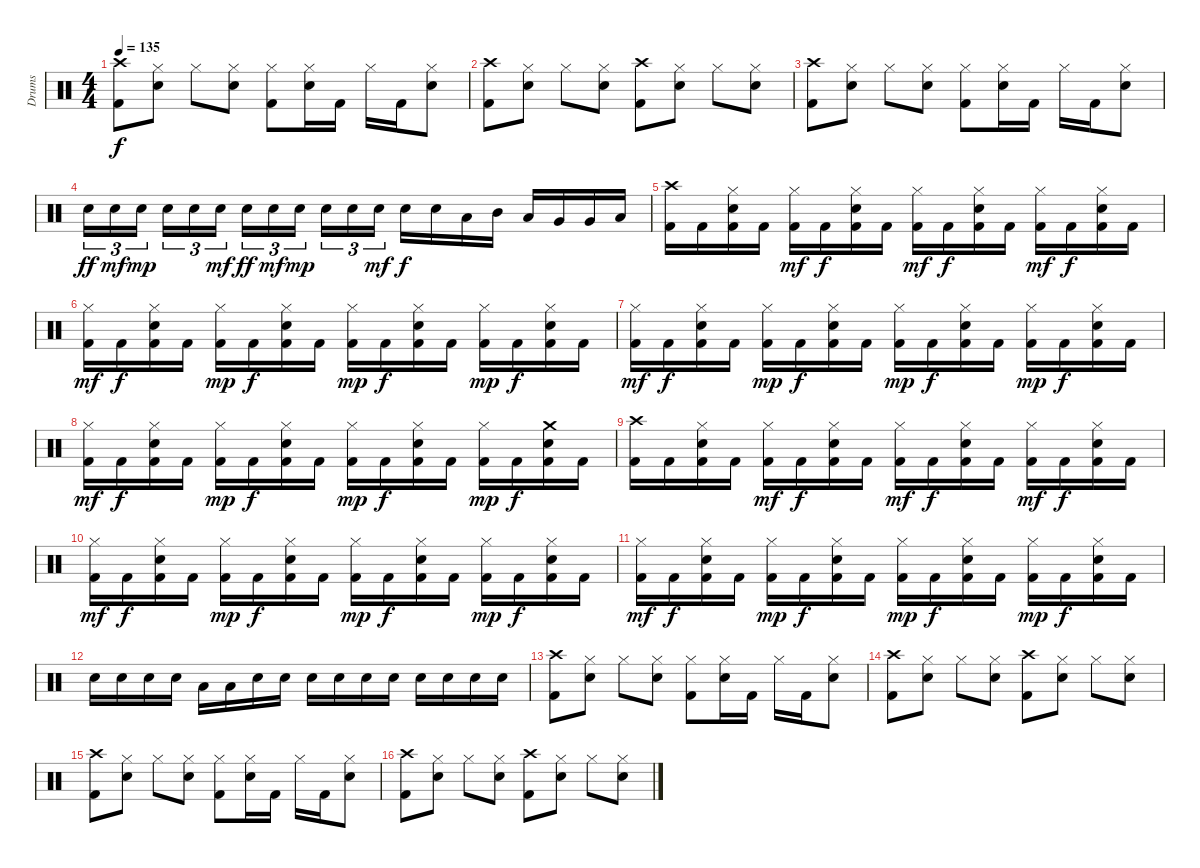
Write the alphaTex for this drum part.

\track ("Drums" "Drums") {instrument percussion}
\staff {score}
\articulation defaults
\ts (4 4)
\tempo 135
\clef neutral
\ks c
("Crash high (hit)" "Kick (hit) 2").8{dy f} ("Hi-Hat (closed)" "Snare (hit) 2").8 "Hi-Hat (closed)".8 ("Hi-Hat (closed)" "Snare (hit) 2").8 ("Hi-Hat (closed)" "Kick (hit) 2").8 ("Hi-Hat (closed)" "Snare (hit) 2").16 "Kick (hit) 2".16 "Hi-Hat (closed)".16 "Kick (hit) 2".16 ("Hi-Hat (closed)" "Snare (hit) 2").8 |
("Crash high (hit)" "Kick (hit) 2").8 ("Hi-Hat (closed)" "Snare (hit) 2").8 "Hi-Hat (closed)".8 ("Hi-Hat (closed)" "Snare (hit) 2").8 ("Crash high (hit)" "Kick (hit) 2").8 ("Hi-Hat (closed)" "Snare (hit) 2").8 "Hi-Hat (closed)".8 ("Hi-Hat (closed)" "Snare (hit) 2").8 |
("Crash high (hit)" "Kick (hit) 2").8 ("Hi-Hat (closed)" "Snare (hit) 2").8 "Hi-Hat (closed)".8 ("Hi-Hat (closed)" "Snare (hit) 2").8 ("Hi-Hat (closed)" "Kick (hit) 2").8 ("Hi-Hat (closed)" "Snare (hit) 2").16 "Kick (hit) 2".16 "Hi-Hat (closed)".16 "Kick (hit) 2".16 ("Hi-Hat (closed)" "Snare (hit) 2").8 |
"Snare (hit) 2".16{tu (3 2) dy ff} "Snare (hit) 2".16{tu (3 2) dy mf} "Snare (hit) 2".16{tu (3 2) dy mp} "Snare (hit) 2".16{tu (3 2)} "Snare (hit) 2".16{tu (3 2)} "Snare (hit) 2".16{tu (3 2) dy mf} "Snare (hit) 2".16{tu (3 2) dy ff} "Snare (hit) 2".16{tu (3 2) dy mf} "Snare (hit) 2".16{tu (3 2) dy mp} "Snare (hit) 2".16{tu (3 2)} "Snare (hit) 2".16{tu (3 2)} "Snare (hit) 2".16{tu (3 2) dy mf} "Snare (hit) 2".16{dy f} "Snare (hit) 2".16 "Low Tom (hit)".16 "Mid Tom (hit)".16 "Low Tom (hit)".16 "Very Low Tom (hit)".16 "Very Low Tom (hit)".16 "Low Floor Tom (hit)".16 |
("Crash high (hit)" "Kick (hit) 2").16 "Kick (hit) 2".16 ("Hi-Hat (closed)" "Snare (hit) 2" "Kick (hit) 2").16 "Kick (hit) 2".16 ("Hi-Hat (closed)" "Kick (hit) 2").16{dy mf} "Kick (hit) 2".16{dy f} ("Hi-Hat (closed)" "Snare (hit) 2" "Kick (hit) 2").16 "Kick (hit) 2".16 ("Hi-Hat (closed)" "Kick (hit) 2").16{dy mf} "Kick (hit) 2".16{dy f} ("Hi-Hat (closed)" "Snare (hit) 2" "Kick (hit) 2").16 "Kick (hit) 2".16 ("Hi-Hat (closed)" "Kick (hit) 2").16{dy mf} "Kick (hit) 2".16{dy f} ("Hi-Hat (closed)" "Snare (hit) 2" "Kick (hit) 2").16 "Kick (hit) 2".16 |
("Hi-Hat (closed)" "Kick (hit) 2").16{dy mf} "Kick (hit) 2".16{dy f} ("Hi-Hat (closed)" "Snare (hit) 2" "Kick (hit) 2").16 "Kick (hit) 2".16 ("Hi-Hat (closed)" "Kick (hit) 2").16{dy mp} "Kick (hit) 2".16{dy f} ("Hi-Hat (closed)" "Snare (hit) 2" "Kick (hit) 2").16 "Kick (hit) 2".16 ("Hi-Hat (closed)" "Kick (hit) 2").16{dy mp} "Kick (hit) 2".16{dy f} ("Hi-Hat (closed)" "Snare (hit) 2" "Kick (hit) 2").16 "Kick (hit) 2".16 ("Hi-Hat (closed)" "Kick (hit) 2").16{dy mp} "Kick (hit) 2".16{dy f} ("Hi-Hat (closed)" "Snare (hit) 2" "Kick (hit) 2").16 "Kick (hit) 2".16 |
("Hi-Hat (closed)" "Kick (hit) 2").16{dy mf} "Kick (hit) 2".16{dy f} ("Hi-Hat (closed)" "Snare (hit) 2" "Kick (hit) 2").16 "Kick (hit) 2".16 ("Hi-Hat (closed)" "Kick (hit) 2").16{dy mp} "Kick (hit) 2".16{dy f} ("Hi-Hat (closed)" "Snare (hit) 2" "Kick (hit) 2").16 "Kick (hit) 2".16 ("Hi-Hat (closed)" "Kick (hit) 2").16{dy mp} "Kick (hit) 2".16{dy f} ("Hi-Hat (closed)" "Snare (hit) 2" "Kick (hit) 2").16 "Kick (hit) 2".16 ("Hi-Hat (closed)" "Kick (hit) 2").16{dy mp} "Kick (hit) 2".16{dy f} ("Hi-Hat (closed)" "Snare (hit) 2" "Kick (hit) 2").16 "Kick (hit) 2".16 |
("Hi-Hat (closed)" "Kick (hit) 2").16{dy mf} "Kick (hit) 2".16{dy f} ("Hi-Hat (closed)" "Snare (hit) 2" "Kick (hit) 2").16 "Kick (hit) 2".16 ("Hi-Hat (closed)" "Kick (hit) 2").16{dy mp} "Kick (hit) 2".16{dy f} ("Hi-Hat (closed)" "Snare (hit) 2" "Kick (hit) 2").16 "Kick (hit) 2".16 ("Hi-Hat (closed)" "Kick (hit) 2").16{dy mp} "Kick (hit) 2".16{dy f} ("Hi-Hat (closed)" "Snare (hit) 2" "Kick (hit) 2").16 "Kick (hit) 2".16 ("Hi-Hat (closed)" "Kick (hit) 2").16{dy mp} "Kick (hit) 2".16{dy f} ("Crash medium (hit)" "Snare (hit) 2" "Kick (hit) 2").16 "Kick (hit) 2".16 |
("Crash high (hit)" "Kick (hit) 2").16 "Kick (hit) 2".16 ("Hi-Hat (closed)" "Snare (hit) 2" "Kick (hit) 2").16 "Kick (hit) 2".16 ("Hi-Hat (closed)" "Kick (hit) 2").16{dy mf} "Kick (hit) 2".16{dy f} ("Hi-Hat (closed)" "Snare (hit) 2" "Kick (hit) 2").16 "Kick (hit) 2".16 ("Hi-Hat (closed)" "Kick (hit) 2").16{dy mf} "Kick (hit) 2".16{dy f} ("Hi-Hat (closed)" "Snare (hit) 2" "Kick (hit) 2").16 "Kick (hit) 2".16 ("Hi-Hat (closed)" "Kick (hit) 2").16{dy mf} "Kick (hit) 2".16{dy f} ("Hi-Hat (closed)" "Snare (hit) 2" "Kick (hit) 2").16 "Kick (hit) 2".16 |
("Hi-Hat (closed)" "Kick (hit) 2").16{dy mf} "Kick (hit) 2".16{dy f} ("Hi-Hat (closed)" "Snare (hit) 2" "Kick (hit) 2").16 "Kick (hit) 2".16 ("Hi-Hat (closed)" "Kick (hit) 2").16{dy mp} "Kick (hit) 2".16{dy f} ("Hi-Hat (closed)" "Snare (hit) 2" "Kick (hit) 2").16 "Kick (hit) 2".16 ("Hi-Hat (closed)" "Kick (hit) 2").16{dy mp} "Kick (hit) 2".16{dy f} ("Hi-Hat (closed)" "Snare (hit) 2" "Kick (hit) 2").16 "Kick (hit) 2".16 ("Hi-Hat (closed)" "Kick (hit) 2").16{dy mp} "Kick (hit) 2".16{dy f} ("Hi-Hat (closed)" "Snare (hit) 2" "Kick (hit) 2").16 "Kick (hit) 2".16 |
("Hi-Hat (closed)" "Kick (hit) 2").16{dy mf} "Kick (hit) 2".16{dy f} ("Hi-Hat (closed)" "Snare (hit) 2" "Kick (hit) 2").16 "Kick (hit) 2".16 ("Hi-Hat (closed)" "Kick (hit) 2").16{dy mp} "Kick (hit) 2".16{dy f} ("Hi-Hat (closed)" "Snare (hit) 2" "Kick (hit) 2").16 "Kick (hit) 2".16 ("Hi-Hat (closed)" "Kick (hit) 2").16{dy mp} "Kick (hit) 2".16{dy f} ("Hi-Hat (closed)" "Snare (hit) 2" "Kick (hit) 2").16 "Kick (hit) 2".16 ("Hi-Hat (closed)" "Kick (hit) 2").16{dy mp} "Kick (hit) 2".16{dy f} ("Hi-Hat (closed)" "Snare (hit) 2" "Kick (hit) 2").16 "Kick (hit) 2".16 |
"Snare (hit) 2".16 "Snare (hit) 2".16 "Snare (hit) 2".16 "Snare (hit) 2".16 "Low Tom (hit)".16 "Low Tom (hit)".16 "Snare (hit) 2".16 "Snare (hit) 2".16 "Snare (hit) 2".16 "Snare (hit) 2".16 "Snare (hit) 2".16 "Snare (hit) 2".16 "Snare (hit) 2".16 "Snare (hit) 2".16 "Snare (hit) 2".16 "Snare (hit) 2".16 |
("Crash high (hit)" "Kick (hit) 2").8 ("Hi-Hat (closed)" "Snare (hit) 2").8 "Hi-Hat (closed)".8 ("Hi-Hat (closed)" "Snare (hit) 2").8 ("Hi-Hat (closed)" "Kick (hit) 2").8 ("Hi-Hat (closed)" "Snare (hit) 2").16 "Kick (hit) 2".16 "Hi-Hat (closed)".16 "Kick (hit) 2".16 ("Hi-Hat (closed)" "Snare (hit) 2").8 |
("Crash high (hit)" "Kick (hit) 2").8 ("Hi-Hat (closed)" "Snare (hit) 2").8 "Hi-Hat (closed)".8 ("Hi-Hat (closed)" "Snare (hit) 2").8 ("Crash high (hit)" "Kick (hit) 2").8 ("Hi-Hat (closed)" "Snare (hit) 2").8 "Hi-Hat (closed)".8 ("Hi-Hat (closed)" "Snare (hit) 2").8 |
("Crash high (hit)" "Kick (hit) 2").8 ("Hi-Hat (closed)" "Snare (hit) 2").8 "Hi-Hat (closed)".8 ("Hi-Hat (closed)" "Snare (hit) 2").8 ("Hi-Hat (closed)" "Kick (hit) 2").8 ("Hi-Hat (closed)" "Snare (hit) 2").16 "Kick (hit) 2".16 "Hi-Hat (closed)".16 "Kick (hit) 2".16 ("Hi-Hat (closed)" "Snare (hit) 2").8 |
("Crash high (hit)" "Kick (hit) 2").8 ("Hi-Hat (closed)" "Snare (hit) 2").8 "Hi-Hat (closed)".8 ("Hi-Hat (closed)" "Snare (hit) 2").8 ("Crash high (hit)" "Kick (hit) 2").8 ("Hi-Hat (closed)" "Snare (hit) 2").8 "Hi-Hat (closed)".8 ("Hi-Hat (closed)" "Snare (hit) 2").8
